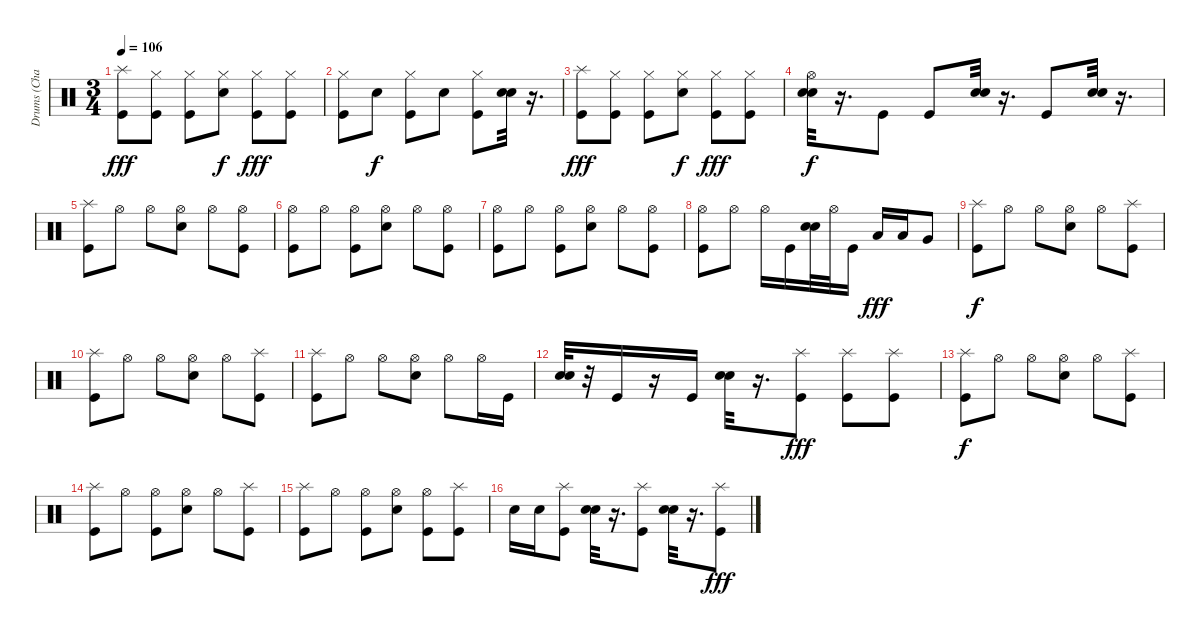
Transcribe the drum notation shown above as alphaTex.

\track ("Drums (Chad?)" "Drums (Cha") {instrument percussion}
\staff {score}
\articulation defaults
\ts (3 4)
\tempo 106
\clef neutral
\ks c
("Splash (hit)" "Kick (hit)").8{dy fff} ("Hi-Hat (closed)" "Kick (hit)").8 ("Hi-Hat (closed)" "Kick (hit)").8 ("Hi-Hat (closed)" "Snare (hit) 2").8{dy f} ("Hi-Hat (closed)" "Kick (hit)").8{dy fff} ("Hi-Hat (closed)" "Kick (hit)").8 |
("Hi-Hat (closed)" "Kick (hit)").8 "Snare (hit) 2".8{dy f} ("Hi-Hat (closed)" "Kick (hit)").8 "Snare (hit) 2".8 ("Hi-Hat (closed)" "Kick (hit)").8 ("Snare (hit) 2" "Snare (hit) 2").32 r.16{d} |
("Splash (hit)" "Kick (hit)").8{dy fff} ("Hi-Hat (closed)" "Kick (hit)").8 ("Hi-Hat (closed)" "Kick (hit)").8 ("Hi-Hat (closed)" "Snare (hit) 2").8{dy f} ("Hi-Hat (closed)" "Kick (hit)").8{dy fff} ("Hi-Hat (closed)" "Kick (hit)").8 |
("Hi-Hat (open)" "Snare (hit) 2" "Snare (hit) 2").32{dy f} r.16{d} "Kick (hit)".8 "Kick (hit)".8 ("Snare (hit) 2" "Snare (hit) 2").32 r.16{d} "Kick (hit)".8 ("Snare (hit) 2" "Snare (hit) 2").32 r.16{d} |
("Splash (hit)" "Kick (hit)").8 "Hi-Hat (open)".8 "Hi-Hat (open)".8 ("Hi-Hat (open)" "Snare (hit) 2").8 "Hi-Hat (open)".8 ("Hi-Hat (open)" "Kick (hit)").8 |
("Hi-Hat (open)" "Kick (hit)").8 "Hi-Hat (open)".8 ("Hi-Hat (open)" "Kick (hit)").8 ("Hi-Hat (open)" "Snare (hit) 2").8 "Hi-Hat (open)".8 ("Hi-Hat (open)" "Kick (hit)").8 |
("Hi-Hat (open)" "Kick (hit)").8 "Hi-Hat (open)".8 ("Hi-Hat (open)" "Kick (hit)").8 ("Hi-Hat (open)" "Snare (hit) 2").8 "Hi-Hat (open)".8 ("Hi-Hat (open)" "Kick (hit)").8 |
("Hi-Hat (open)" "Kick (hit)").8 "Hi-Hat (open)".8 "Hi-Hat (open)".16 "Kick (hit)".16 ("Snare (hit) 2" "Snare (hit) 2").32 "Hi-Hat (open)".32 "Kick (hit)".16 "Low Tom (hit)".16{dy fff} "Low Tom (hit)".16 "Very Low Tom (hit)".8 |
("Splash (hit)" "Kick (hit)").8{dy f} "Hi-Hat (open)".8 "Hi-Hat (open)".8 ("Hi-Hat (open)" "Snare (hit) 2").8 "Hi-Hat (open)".8 ("Splash (hit)" "Kick (hit)").8 |
("Splash (hit)" "Kick (hit)").8 "Hi-Hat (open)".8 "Hi-Hat (open)".8 ("Hi-Hat (open)" "Snare (hit) 2").8 "Hi-Hat (open)".8 ("Splash (hit)" "Kick (hit)").8 |
("Splash (hit)" "Kick (hit)").8 "Hi-Hat (open)".8 "Hi-Hat (open)".8 ("Hi-Hat (open)" "Snare (hit) 2").8 "Hi-Hat (open)".8 "Hi-Hat (open)".16 "Kick (hit)".16 |
("Snare (hit) 2" "Snare (hit) 2").32 r.32 "Kick (hit)".16 r.16 "Kick (hit)".16 ("Snare (hit) 2" "Snare (hit) 2").32 r.16{d} ("Splash (hit)" "Kick (hit)").8{dy fff} ("Splash (hit)" "Kick (hit)").8 ("Splash (hit)" "Kick (hit)").8 |
("Splash (hit)" "Kick (hit)").8{dy f} "Hi-Hat (open)".8 "Hi-Hat (open)".8 ("Hi-Hat (open)" "Snare (hit) 2").8 "Hi-Hat (open)".8 ("Splash (hit)" "Kick (hit)").8 |
("Splash (hit)" "Kick (hit)").8 "Hi-Hat (open)".8 ("Hi-Hat (open)" "Kick (hit)").8 ("Hi-Hat (open)" "Snare (hit) 2").8 "Hi-Hat (open)".8 ("Splash (hit)" "Kick (hit)").8 |
("Splash (hit)" "Kick (hit)").8 "Hi-Hat (open)".8 ("Hi-Hat (open)" "Kick (hit)").8 ("Hi-Hat (open)" "Snare (hit) 2").8 ("Hi-Hat (open)" "Kick (hit)").8 ("Splash (hit)" "Kick (hit)").8 |
"Snare (hit) 2".16 "Snare (hit) 2".16 ("Splash (hit)" "Kick (hit)").8 ("Snare (hit) 2" "Snare (hit) 2").32 r.16{d} ("Splash (hit)" "Kick (hit)").8 ("Snare (hit) 2" "Snare (hit) 2").32 r.16{d} ("Splash (hit)" "Kick (hit)").8{dy fff}
